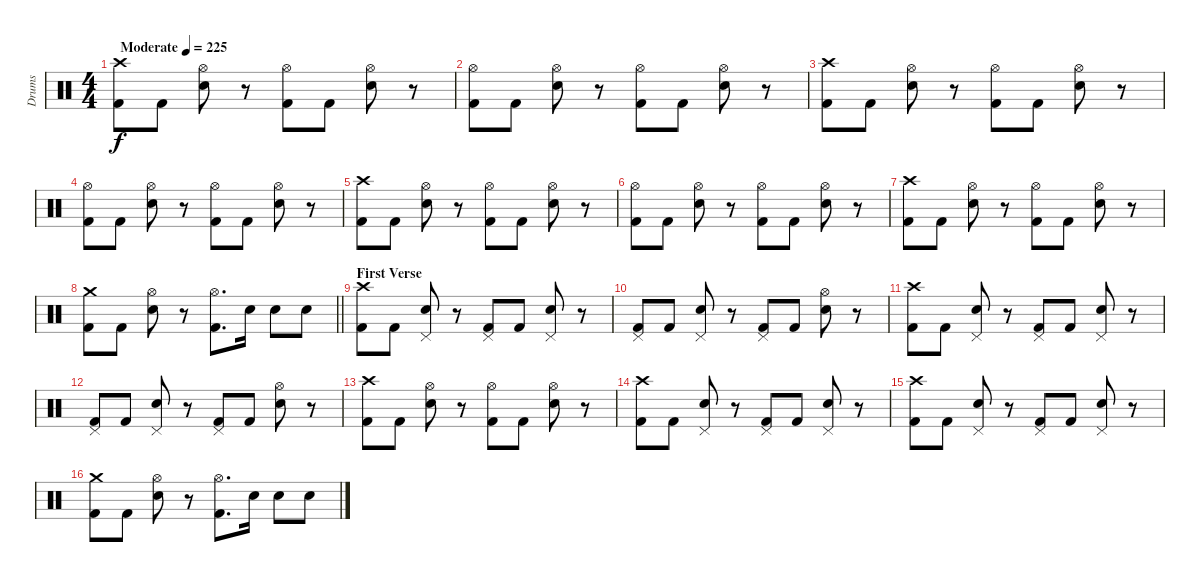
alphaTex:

\track ("Drums" "Drums") {instrument percussion}
\staff {score}
\articulation defaults
\ts (4 4)
\tempo (225 "Moderate")
\clef neutral
\ks c
("Crash high (hit)" "Kick (hit) 2").8{dy f} "Kick (hit) 2".8 ("Hi-Hat (open)" "Electric Snare (hit)").8 r.8 ("Hi-Hat (open)" "Kick (hit) 2").8 "Kick (hit) 2".8 ("Hi-Hat (open)" "Electric Snare (hit)").8 r.8 |
("Hi-Hat (open)" "Kick (hit) 2").8 "Kick (hit) 2".8 ("Hi-Hat (open)" "Electric Snare (hit)").8 r.8 ("Hi-Hat (open)" "Kick (hit) 2").8 "Kick (hit) 2".8 ("Hi-Hat (open)" "Electric Snare (hit)").8 r.8 |
("Crash high (hit)" "Kick (hit) 2").8 "Kick (hit) 2".8 ("Hi-Hat (open)" "Electric Snare (hit)").8 r.8 ("Hi-Hat (open)" "Kick (hit) 2").8 "Kick (hit) 2".8 ("Hi-Hat (open)" "Electric Snare (hit)").8 r.8 |
("Hi-Hat (open)" "Kick (hit) 2").8 "Kick (hit) 2".8 ("Hi-Hat (open)" "Electric Snare (hit)").8 r.8 ("Hi-Hat (open)" "Kick (hit) 2").8 "Kick (hit) 2".8 ("Hi-Hat (open)" "Electric Snare (hit)").8 r.8 |
("Crash high (hit)" "Kick (hit) 2").8 "Kick (hit) 2".8 ("Hi-Hat (open)" "Electric Snare (hit)").8 r.8 ("Hi-Hat (open)" "Kick (hit) 2").8 "Kick (hit) 2".8 ("Hi-Hat (open)" "Electric Snare (hit)").8 r.8 |
("Hi-Hat (open)" "Kick (hit) 2").8 "Kick (hit) 2".8 ("Hi-Hat (open)" "Electric Snare (hit)").8 r.8 ("Hi-Hat (open)" "Kick (hit) 2").8 "Kick (hit) 2".8 ("Hi-Hat (open)" "Electric Snare (hit)").8 r.8 |
("Crash high (hit)" "Kick (hit) 2").8 "Kick (hit) 2".8 ("Hi-Hat (open)" "Electric Snare (hit)").8 r.8 ("Hi-Hat (open)" "Kick (hit) 2").8 "Kick (hit) 2".8 ("Hi-Hat (open)" "Electric Snare (hit)").8 r.8 |
\barLineRight lightlight
("Crash medium (hit)" "Kick (hit) 2").8 "Kick (hit) 2".8 ("Hi-Hat (open)" "Electric Snare (hit)").8 r.8 ("Hi-Hat (open)" "Kick (hit) 2").8{d} "Electric Snare (hit)".16 "Electric Snare (hit)".8 "Electric Snare (hit)".8 |
\section ("" "First Verse")
("Crash high (hit)" "Kick (hit) 2").8 "Kick (hit) 2".8 ("Pedal Hi-Hat (hit)" "Electric Snare (hit)").8 r.8 ("Pedal Hi-Hat (hit)" "Kick (hit) 2").8 "Kick (hit) 2".8 ("Pedal Hi-Hat (hit)" "Electric Snare (hit)").8 r.8 |
("Pedal Hi-Hat (hit)" "Kick (hit) 2").8 "Kick (hit) 2".8 ("Pedal Hi-Hat (hit)" "Electric Snare (hit)").8 r.8 ("Pedal Hi-Hat (hit)" "Kick (hit) 2").8 "Kick (hit) 2".8 ("Hi-Hat (open)" "Electric Snare (hit)").8 r.8 |
("Crash high (hit)" "Kick (hit) 2").8 "Kick (hit) 2".8 ("Pedal Hi-Hat (hit)" "Electric Snare (hit)").8 r.8 ("Pedal Hi-Hat (hit)" "Kick (hit) 2").8 "Kick (hit) 2".8 ("Pedal Hi-Hat (hit)" "Electric Snare (hit)").8 r.8 |
("Pedal Hi-Hat (hit)" "Kick (hit) 2").8 "Kick (hit) 2".8 ("Pedal Hi-Hat (hit)" "Electric Snare (hit)").8 r.8 ("Pedal Hi-Hat (hit)" "Kick (hit) 2").8 "Kick (hit) 2".8 ("Hi-Hat (open)" "Electric Snare (hit)").8 r.8 |
("Crash high (hit)" "Kick (hit) 2").8 "Kick (hit) 2".8 ("Hi-Hat (open)" "Electric Snare (hit)").8 r.8 ("Hi-Hat (open)" "Kick (hit) 2").8 "Kick (hit) 2".8 ("Hi-Hat (open)" "Electric Snare (hit)").8 r.8 |
("Crash high (hit)" "Kick (hit) 2").8 "Kick (hit) 2".8 ("Pedal Hi-Hat (hit)" "Electric Snare (hit)").8 r.8 ("Pedal Hi-Hat (hit)" "Kick (hit) 2").8 "Kick (hit) 2".8 ("Pedal Hi-Hat (hit)" "Electric Snare (hit)").8 r.8 |
("Crash high (hit)" "Kick (hit) 2").8 "Kick (hit) 2".8 ("Pedal Hi-Hat (hit)" "Electric Snare (hit)").8 r.8 ("Pedal Hi-Hat (hit)" "Kick (hit) 2").8 "Kick (hit) 2".8 ("Pedal Hi-Hat (hit)" "Electric Snare (hit)").8 r.8 |
("Crash medium (hit)" "Kick (hit) 2").8 "Kick (hit) 2".8 ("Hi-Hat (open)" "Electric Snare (hit)").8 r.8 ("Hi-Hat (open)" "Kick (hit) 2").8{d} "Electric Snare (hit)".16 "Electric Snare (hit)".8 "Electric Snare (hit)".8
